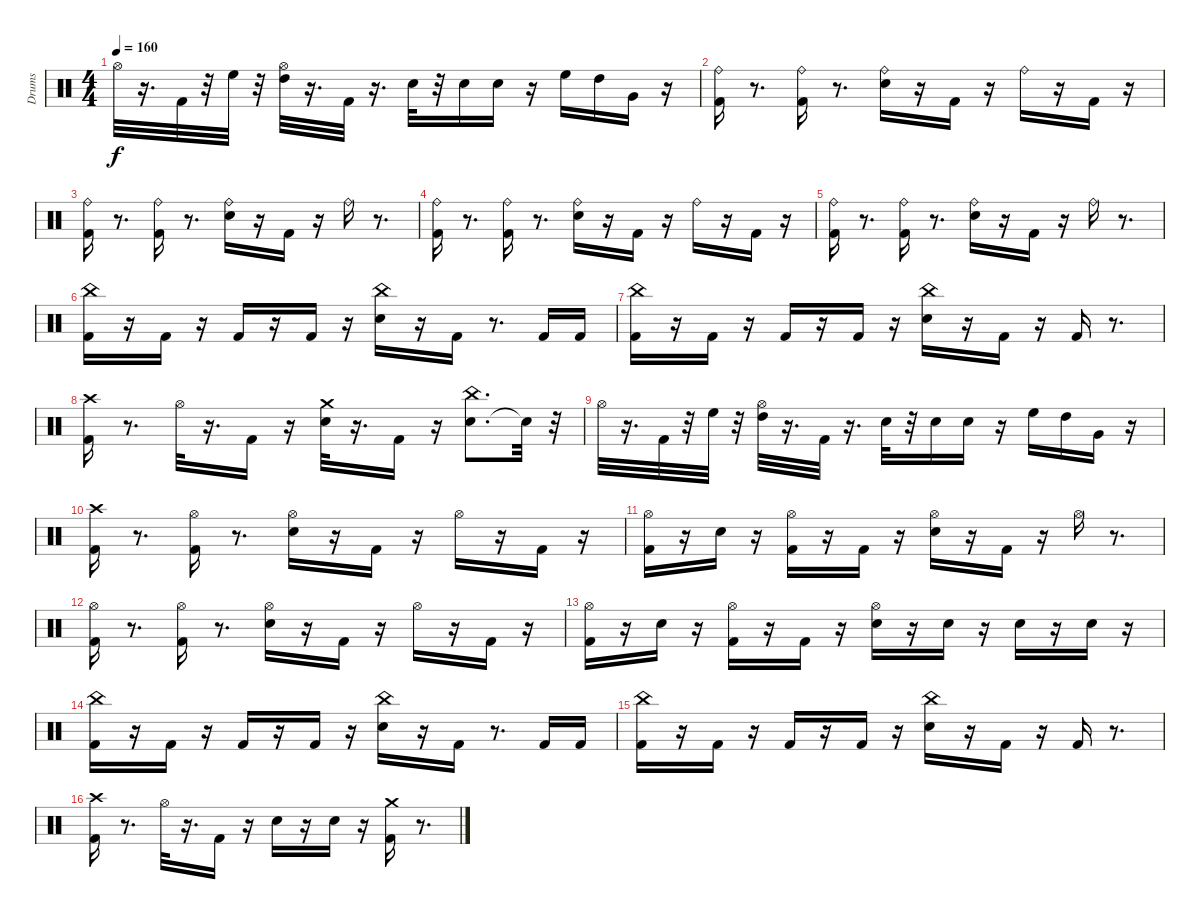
\track ("Drums" "Drums") {instrument percussion}
\staff {score}
\articulation defaults
\ts (4 4)
\tempo 160
\clef neutral
\ks c "Hi-Hat (open)".32{dy f}
r.16{d} "Kick (hit) 2".32 r.32 "High Floor Tom (hit)".32 r.32 ("Hi-Hat (open)" "High Tom (hit)").32 r.16{d} "Kick (hit) 2".32 r.16{d} "Snare (hit) 2".32 r.32 "Snare (hit) 2".16 "Snare (hit) 2".16 r.16 "High Floor Tom (hit)".16 "High Tom (hit)".16 "Very Low Tom (hit)".16 r.16 |
("Kick (hit) 2" "Ride (bell)").16 r.8{d} ("Kick (hit) 2" "Ride (bell)").16 r.8{d} ("Snare (hit) 2" "Ride (bell)").16 r.16 "Kick (hit) 2".16 r.16 "Ride (bell)".16 r.16 "Kick (hit) 2".16 r.16 |
("Kick (hit) 2" "Ride (bell)").16 r.8{d} ("Kick (hit) 2" "Ride (bell)").16 r.8{d} ("Snare (hit) 2" "Ride (bell)").16 r.16 "Kick (hit) 2".16 r.16 "Ride (bell)".16 r.8{d} |
("Kick (hit) 2" "Ride (bell)").16 r.8{d} ("Kick (hit) 2" "Ride (bell)").16 r.8{d} ("Snare (hit) 2" "Ride (bell)").16 r.16 "Kick (hit) 2".16 r.16 "Ride (bell)".16 r.16 "Kick (hit) 2".16 r.16 |
("Kick (hit) 2" "Ride (bell)").16 r.8{d} ("Kick (hit) 2" "Ride (bell)").16 r.8{d} ("Snare (hit) 2" "Ride (bell)").16 r.16 "Kick (hit) 2".16 r.16 "Ride (bell)".16 r.8{d} |
("Kick (hit) 2" "China (hit)").16 r.16 "Kick (hit) 2".16 r.16 "Kick (hit) 2".16 r.16 "Kick (hit) 2".16 r.16 ("Snare (hit) 2" "China (hit)").16 r.16 "Kick (hit) 2".16 r.8{d} "Kick (hit) 2".16 "Kick (hit) 2".16 |
("Kick (hit) 2" "China (hit)").16 r.16 "Kick (hit) 2".16 r.16 "Kick (hit) 2".16 r.16 "Kick (hit) 2".16 r.16 ("Snare (hit) 2" "China (hit)").16 r.16 "Kick (hit) 2".16 r.16 "Kick (hit) 2".16 r.8{d} |
("Kick (hit) 2" "Crash high (hit)").16 r.8{d} "Hi-Hat (open)".32 r.16{d} "Kick (hit) 2".16 r.16 ("Snare (hit) 2" "Crash medium (hit)").32 r.16{d} "Kick (hit) 2".16 r.16 ("Snare (hit) 2" "China (hit)").8{d} "Snare (hit)"{t}.32 r.32 |
"Hi-Hat (open)".32 r.16{d} "Kick (hit) 2".32 r.32 "High Floor Tom (hit)".32 r.32 ("Hi-Hat (open)" "High Tom (hit)").32 r.16{d} "Kick (hit) 2".32 r.16{d} "Snare (hit) 2".32 r.32 "Snare (hit) 2".16 "Snare (hit) 2".16 r.16 "High Floor Tom (hit)".16 "High Tom (hit)".16 "Very Low Tom (hit)".16 r.16 |
("Kick (hit) 2" "Crash high (hit)").16 r.8{d} ("Kick (hit) 2" "Hi-Hat (open)").16 r.8{d} ("Snare (hit) 2" "Hi-Hat (open)").16 r.16 "Kick (hit) 2".16 r.16 "Hi-Hat (open)".16 r.16 "Kick (hit) 2".16 r.16 |
("Kick (hit) 2" "Hi-Hat (open)").16 r.16 "Snare (hit) 2".16 r.16 ("Kick (hit) 2" "Hi-Hat (open)").16 r.16 "Kick (hit) 2".16 r.16 ("Snare (hit) 2" "Hi-Hat (open)").16 r.16 "Kick (hit) 2".16 r.16 "Hi-Hat (open)".16 r.8{d} |
("Kick (hit) 2" "Hi-Hat (open)").16 r.8{d} ("Kick (hit) 2" "Hi-Hat (open)").16 r.8{d} ("Snare (hit) 2" "Hi-Hat (open)").16 r.16 "Kick (hit) 2".16 r.16 "Hi-Hat (open)".16 r.16 "Kick (hit) 2".16 r.16 |
("Kick (hit) 2" "Hi-Hat (open)").16 r.16 "Snare (hit) 2".16 r.16 ("Kick (hit) 2" "Hi-Hat (open)").16 r.16 "Kick (hit) 2".16 r.16 ("Snare (hit) 2" "Hi-Hat (open)").16 r.16 "Snare (hit) 2".16 r.16 "Snare (hit) 2".16 r.16 "Snare (hit) 2".16 r.16 |
("Kick (hit) 2" "China (hit)").16 r.16 "Kick (hit) 2".16 r.16 "Kick (hit) 2".16 r.16 "Kick (hit) 2".16 r.16 ("Snare (hit) 2" "China (hit)").16 r.16 "Kick (hit) 2".16 r.8{d} "Kick (hit) 2".16 "Kick (hit) 2".16 |
("Kick (hit) 2" "China (hit)").16 r.16 "Kick (hit) 2".16 r.16 "Kick (hit) 2".16 r.16 "Kick (hit) 2".16 r.16 ("Snare (hit) 2" "China (hit)").16 r.16 "Kick (hit) 2".16 r.16 "Kick (hit) 2".16 r.8{d} |
("Kick (hit) 2" "Crash high (hit)").16 r.8{d} "Hi-Hat (open)".32 r.16{d} "Kick (hit) 2".16 r.16 "Snare (hit) 2".16 r.16 "Snare (hit) 2".16 r.16 ("Kick (hit) 2" "Crash medium (hit)").16 r.8{d}
